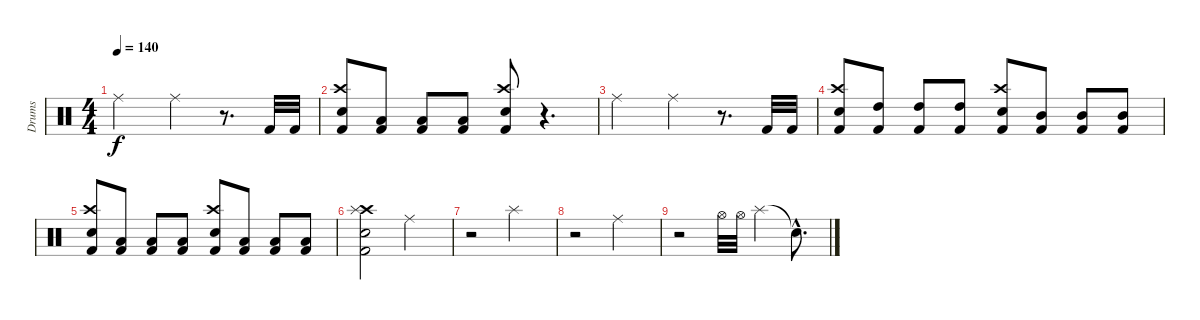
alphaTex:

\track ("Drums" "Drums") {instrument percussion}
\staff {score}
\articulation defaults
\ts (4 4)
\tempo 140
\clef neutral
\ks c "Ride (middle)".2{dy f} "Ride (middle)".4
r.8{d} "Kick (hit) 2".32 "Kick (hit) 2".32 |
("Crash high (hit)" "Electric Snare (hit)" "Kick (hit) 2").8 ("Low Tom (hit)" "Kick (hit) 2").8 ("Low Tom (hit)" "Kick (hit) 2").8 ("Low Tom (hit)" "Kick (hit) 2").8 ("Crash high (hit)" "Electric Snare (hit)" "Kick (hit) 2").8 r.4{d} |
"Ride (middle)".2 "Ride (middle)".4 r.8{d} "Kick (hit) 2".32 "Kick (hit) 2".32 |
("Crash high (hit)" "Electric Snare (hit)" "Kick (hit) 2").8 ("High Tom (hit)" "Kick (hit) 2").8 ("High Tom (hit)" "Kick (hit) 2").8 ("High Tom (hit)" "Kick (hit) 2").8 ("Crash high (hit)" "Electric Snare (hit)" "Kick (hit) 2").8 ("Mid Tom (hit)" "Kick (hit) 2").8 ("Mid Tom (hit)" "Kick (hit) 2").8 ("Mid Tom (hit)" "Kick (hit) 2").8 |
("Crash high (hit)" "Electric Snare (hit)" "Kick (hit) 2").8 ("Low Tom (hit)" "Kick (hit) 2").8 ("Low Tom (hit)" "Kick (hit) 2").8 ("Low Tom (hit)" "Kick (hit) 2").8 ("Crash high (hit)" "Electric Snare (hit)" "Kick (hit) 2").8 ("Low Floor Tom (hit)" "Kick (hit) 2").8 ("Low Floor Tom (hit)" "Kick (hit) 2").8 ("Low Floor Tom (hit)" "Kick (hit) 2").8 |
("Crash high (hit)" "Splash (hit)" "Electric Snare (hit)" "Kick (hit) 2").2 "Ride (middle)".2 |
r.2 "Splash (hit)".2 |
r.2 "Ride (middle)".2 |
r.2 "Hi-Hat (open)".32 "Hi-Hat (open)".32 "Splash (hit)".4 "Snare (hit)"{hac t}.8{d}
